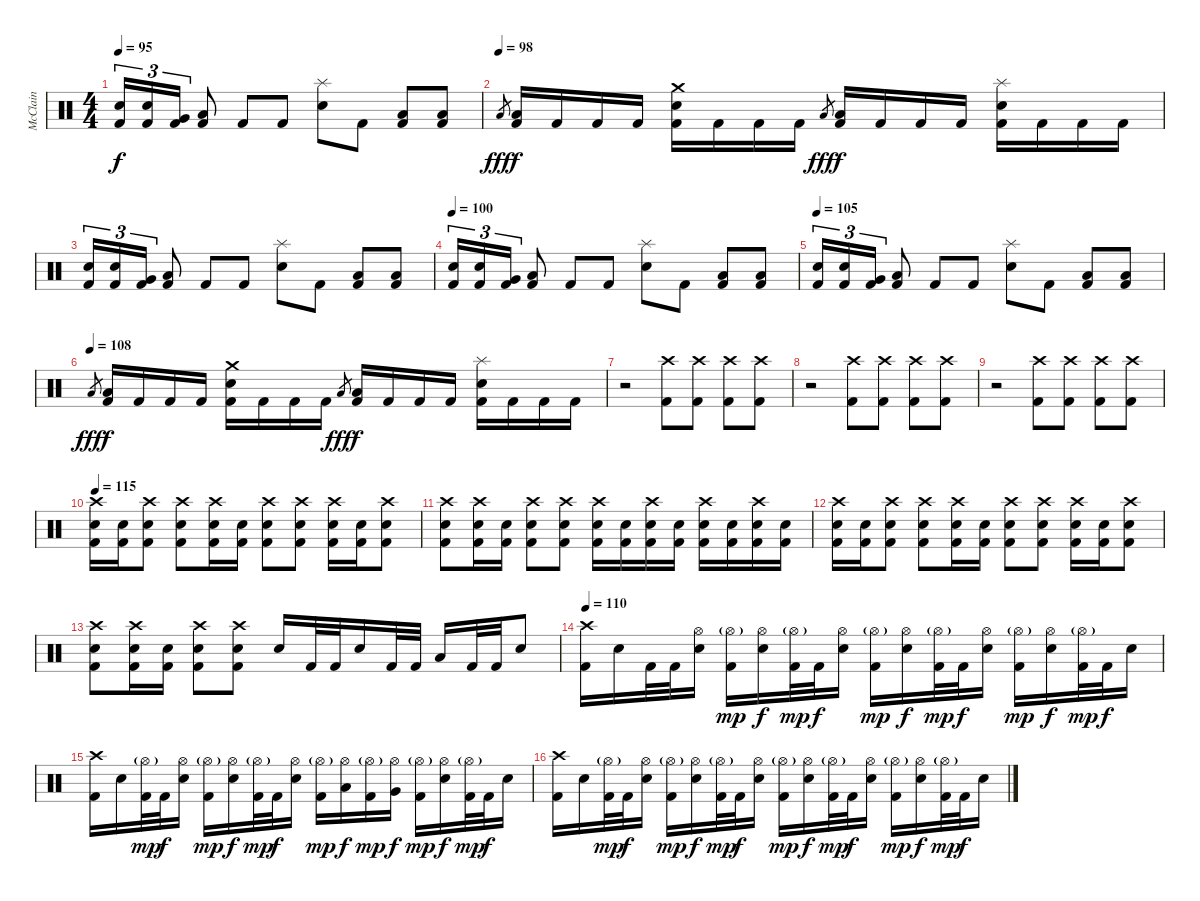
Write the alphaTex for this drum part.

\track ("McClain" "McClain") {instrument percussion}
\staff {score}
\articulation defaults
\ts (4 4)
\tempo 95
\clef neutral
\ks c
("Electric Snare (hit)" "Kick (hit) 2").16{tu (3 2) dy f} ("Electric Snare (hit)" "Kick (hit) 2").16{tu (3 2)} ("Very Low Tom (hit)" "Kick (hit) 2").16{tu (3 2)} ("Low Floor Tom (hit)" "Kick (hit) 2").8 "Kick (hit) 2".8 "Kick (hit) 2".8 ("Splash (hit)" "Electric Snare (hit)").8 "Kick (hit) 2".8 ("Low Floor Tom (hit)" "Kick (hit) 2").8 ("Low Floor Tom (hit)" "Kick (hit) 2").8 |
\tempo (98)
"Low Floor Tom (hit)".8{gr dy fff} ("Low Floor Tom (hit)" "Kick (hit) 2").16{dy f} "Kick (hit) 2".16 "Kick (hit) 2".16 "Kick (hit) 2".16 ("Crash medium (hit)" "Electric Snare (hit)" "Kick (hit) 2").16 "Kick (hit) 2".16 "Kick (hit) 2".16 "Kick (hit) 2".16 "Low Floor Tom (hit)".8{gr dy fff} ("Low Floor Tom (hit)" "Kick (hit) 2").16{dy f} "Kick (hit) 2".16 "Kick (hit) 2".16 "Kick (hit) 2".16 ("Splash (hit)" "Electric Snare (hit)" "Kick (hit) 2").16 "Kick (hit) 2".16 "Kick (hit) 2".16 "Kick (hit) 2".16 |
("Electric Snare (hit)" "Kick (hit) 2").16{tu (3 2)} ("Electric Snare (hit)" "Kick (hit) 2").16{tu (3 2)} ("Very Low Tom (hit)" "Kick (hit) 2").16{tu (3 2)} ("Low Floor Tom (hit)" "Kick (hit) 2").8 "Kick (hit) 2".8 "Kick (hit) 2".8 ("Splash (hit)" "Electric Snare (hit)").8 "Kick (hit) 2".8 ("Low Floor Tom (hit)" "Kick (hit) 2").8 ("Low Floor Tom (hit)" "Kick (hit) 2").8 |
\tempo 100
("Electric Snare (hit)" "Kick (hit) 2").16{tu (3 2)} ("Electric Snare (hit)" "Kick (hit) 2").16{tu (3 2)} ("Very Low Tom (hit)" "Kick (hit) 2").16{tu (3 2)} ("Low Floor Tom (hit)" "Kick (hit) 2").8 "Kick (hit) 2".8 "Kick (hit) 2".8 ("Splash (hit)" "Electric Snare (hit)").8 "Kick (hit) 2".8 ("Low Floor Tom (hit)" "Kick (hit) 2").8 ("Low Floor Tom (hit)" "Kick (hit) 2").8 |
\tempo 105
("Electric Snare (hit)" "Kick (hit) 2").16{tu (3 2)} ("Electric Snare (hit)" "Kick (hit) 2").16{tu (3 2)} ("Very Low Tom (hit)" "Kick (hit) 2").16{tu (3 2)} ("Low Floor Tom (hit)" "Kick (hit) 2").8 "Kick (hit) 2".8 "Kick (hit) 2".8 ("Splash (hit)" "Electric Snare (hit)").8 "Kick (hit) 2".8 ("Low Floor Tom (hit)" "Kick (hit) 2").8 ("Low Floor Tom (hit)" "Kick (hit) 2").8 |
\tempo (108)
"Low Floor Tom (hit)".8{gr dy fff} ("Low Floor Tom (hit)" "Kick (hit) 2").16{dy f} "Kick (hit) 2".16 "Kick (hit) 2".16 "Kick (hit) 2".16 ("Crash medium (hit)" "Electric Snare (hit)" "Kick (hit) 2").16 "Kick (hit) 2".16 "Kick (hit) 2".16 "Kick (hit) 2".16 "Low Floor Tom (hit)".8{gr dy fff} ("Low Floor Tom (hit)" "Kick (hit) 2").16{dy f} "Kick (hit) 2".16 "Kick (hit) 2".16 "Kick (hit) 2".16 ("Splash (hit)" "Electric Snare (hit)" "Kick (hit) 2").16 "Kick (hit) 2".16 "Kick (hit) 2".16 "Kick (hit) 2".16 |
r.2 ("Crash high (hit)" "Kick (hit) 2").8 ("Crash high (hit)" "Kick (hit) 2").8 ("Crash high (hit)" "Kick (hit) 2").8 ("Crash high (hit)" "Kick (hit) 2").8 |
r.2 ("Crash high (hit)" "Kick (hit) 2").8 ("Crash high (hit)" "Kick (hit) 2").8 ("Crash high (hit)" "Kick (hit) 2").8 ("Crash high (hit)" "Kick (hit) 2").8 |
r.2 ("Crash high (hit)" "Kick (hit) 2").8 ("Crash high (hit)" "Kick (hit) 2").8 ("Crash high (hit)" "Kick (hit) 2").8 ("Crash high (hit)" "Kick (hit) 2").8 |
\tempo 115
("Crash high (hit)" "Electric Snare (hit)" "Kick (hit) 2").16 ("Electric Snare (hit)" "Kick (hit) 2").16 ("Crash high (hit)" "Electric Snare (hit)" "Kick (hit) 2").8 ("Crash high (hit)" "Electric Snare (hit)" "Kick (hit) 2").8 ("Crash high (hit)" "Electric Snare (hit)" "Kick (hit) 2").16 ("Electric Snare (hit)" "Kick (hit) 2").16 ("Crash high (hit)" "Electric Snare (hit)" "Kick (hit) 2").8 ("Crash high (hit)" "Electric Snare (hit)" "Kick (hit) 2").8 ("Crash high (hit)" "Electric Snare (hit)" "Kick (hit) 2").16 ("Electric Snare (hit)" "Kick (hit) 2").16 ("Crash high (hit)" "Electric Snare (hit)" "Kick (hit) 2").8 |
("Crash high (hit)" "Electric Snare (hit)" "Kick (hit) 2").8 ("Crash high (hit)" "Electric Snare (hit)" "Kick (hit) 2").16 ("Electric Snare (hit)" "Kick (hit) 2").16 ("Crash high (hit)" "Electric Snare (hit)" "Kick (hit) 2").8 ("Crash high (hit)" "Electric Snare (hit)" "Kick (hit) 2").8 ("Crash high (hit)" "Electric Snare (hit)" "Kick (hit) 2").16 ("Electric Snare (hit)" "Kick (hit) 2").16 ("Crash high (hit)" "Electric Snare (hit)" "Kick (hit) 2").16 ("Electric Snare (hit)" "Kick (hit) 2").16 ("Crash high (hit)" "Electric Snare (hit)" "Kick (hit) 2").16 ("Electric Snare (hit)" "Kick (hit) 2").16 ("Crash high (hit)" "Electric Snare (hit)" "Kick (hit) 2").16 ("Electric Snare (hit)" "Kick (hit) 2").16 |
("Crash high (hit)" "Electric Snare (hit)" "Kick (hit) 2").16 ("Electric Snare (hit)" "Kick (hit) 2").16 ("Crash high (hit)" "Electric Snare (hit)" "Kick (hit) 2").8 ("Crash high (hit)" "Electric Snare (hit)" "Kick (hit) 2").8 ("Crash high (hit)" "Electric Snare (hit)" "Kick (hit) 2").16 ("Electric Snare (hit)" "Kick (hit) 2").16 ("Crash high (hit)" "Electric Snare (hit)" "Kick (hit) 2").8 ("Crash high (hit)" "Electric Snare (hit)" "Kick (hit) 2").8 ("Crash high (hit)" "Electric Snare (hit)" "Kick (hit) 2").16 ("Electric Snare (hit)" "Kick (hit) 2").16 ("Crash high (hit)" "Electric Snare (hit)" "Kick (hit) 2").8 |
("Crash high (hit)" "Electric Snare (hit)" "Kick (hit) 2").8 ("Crash high (hit)" "Electric Snare (hit)" "Kick (hit) 2").16 ("Electric Snare (hit)" "Kick (hit) 2").16 ("Crash high (hit)" "Electric Snare (hit)" "Kick (hit) 2").8 ("Crash high (hit)" "Electric Snare (hit)" "Kick (hit) 2").8 "Electric Snare (hit)".16 "Kick (hit) 2".32 "Kick (hit) 2".32 "Electric Snare (hit)".16 "Kick (hit) 2".32 "Kick (hit) 2".32 "Low Floor Tom (hit)".16 "Kick (hit) 2".32 "Kick (hit) 2".32 "Electric Snare (hit)".8 |
\tempo 110
("Crash high (hit)" "Kick (hit) 2").16 "Electric Snare (hit)".16 "Kick (hit) 2".32 "Kick (hit) 2".32 ("Hi-Hat (open)" "Electric Snare (hit)").16 ("Hi-Hat (open)"{g} "Kick (hit) 2").16{dy mp} ("Hi-Hat (open)" "Electric Snare (hit)").16{dy f} ("Hi-Hat (open)"{g} "Kick (hit) 2").32{dy mp} "Kick (hit) 2".32{dy f} ("Hi-Hat (open)" "Electric Snare (hit)").16 ("Hi-Hat (open)"{g} "Kick (hit) 2").16{dy mp} ("Hi-Hat (open)" "Electric Snare (hit)").16{dy f} ("Hi-Hat (open)"{g} "Kick (hit) 2").32{dy mp} "Kick (hit) 2".32{dy f} ("Hi-Hat (open)" "Electric Snare (hit)").16 ("Hi-Hat (open)"{g} "Kick (hit) 2").16{dy mp} ("Hi-Hat (open)" "Electric Snare (hit)").16{dy f} ("Hi-Hat (open)"{g} "Kick (hit) 2").32{dy mp} "Kick (hit) 2".32{dy f} "Electric Snare (hit)".16 |
("Crash high (hit)" "Kick (hit) 2").16 "Electric Snare (hit)".16 ("Hi-Hat (open)"{g} "Kick (hit) 2").32{dy mp} "Kick (hit) 2".32{dy f} ("Hi-Hat (open)" "Electric Snare (hit)").16 ("Hi-Hat (open)"{g} "Kick (hit) 2").16{dy mp} ("Hi-Hat (open)" "Electric Snare (hit)").16{dy f} ("Hi-Hat (open)"{g} "Kick (hit) 2").32{dy mp} "Kick (hit) 2".32{dy f} ("Hi-Hat (open)" "Electric Snare (hit)").16 ("Hi-Hat (open)"{g} "Kick (hit) 2").16{dy mp} ("Hi-Hat (open)" "Low Tom (hit)").16{dy f} ("Hi-Hat (open)"{g} "Kick (hit) 2").16{dy mp} ("Hi-Hat (open)" "Very Low Tom (hit)").16{dy f} ("Hi-Hat (open)"{g} "Kick (hit) 2").16{dy mp} ("Hi-Hat (open)" "Electric Snare (hit)").16{dy f} ("Hi-Hat (open)"{g} "Kick (hit) 2").32{dy mp} "Kick (hit) 2".32{dy f} "Electric Snare (hit)".16 |
("Crash high (hit)" "Kick (hit) 2").16 "Electric Snare (hit)".16 ("Hi-Hat (open)"{g} "Kick (hit) 2").32{dy mp} "Kick (hit) 2".32{dy f} ("Hi-Hat (open)" "Electric Snare (hit)").16 ("Hi-Hat (open)"{g} "Kick (hit) 2").16{dy mp} ("Hi-Hat (open)" "Electric Snare (hit)").16{dy f} ("Hi-Hat (open)"{g} "Kick (hit) 2").32{dy mp} "Kick (hit) 2".32{dy f} ("Hi-Hat (open)" "Electric Snare (hit)").16 ("Hi-Hat (open)"{g} "Kick (hit) 2").16{dy mp} ("Hi-Hat (open)" "Electric Snare (hit)").16{dy f} ("Hi-Hat (open)"{g} "Kick (hit) 2").32{dy mp} "Kick (hit) 2".32{dy f} ("Hi-Hat (open)" "Electric Snare (hit)").16 ("Hi-Hat (open)"{g} "Kick (hit) 2").16{dy mp} ("Hi-Hat (open)" "Electric Snare (hit)").16{dy f} ("Hi-Hat (open)"{g} "Kick (hit) 2").32{dy mp} "Kick (hit) 2".32{dy f} "Electric Snare (hit)".16
